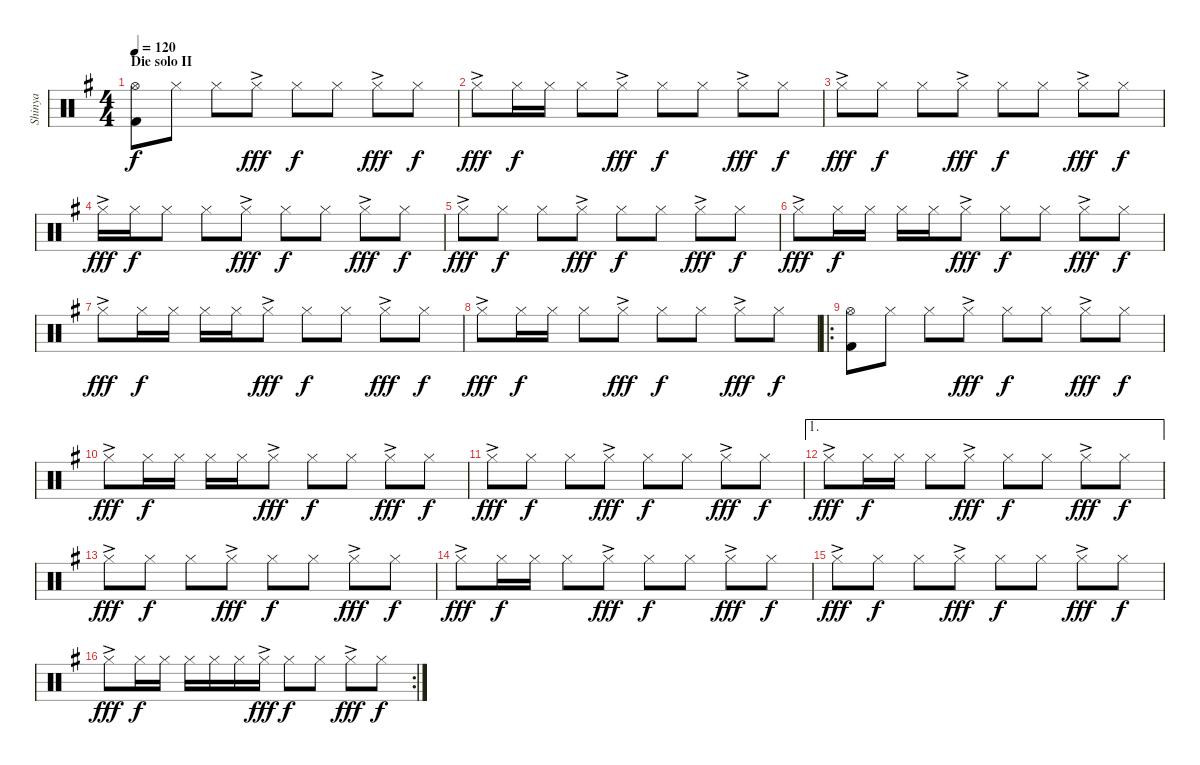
\track ("Shinya" "Shinya") {instrument percussion}
\staff {score}
\articulation defaults
\ts (4 4)
\section ("" "Die solo II")
\tempo 120
\clef neutral
\ks g
("Hi-Hat (open)" "Kick (hit) 2").8{dy f} "Hi-Hat (closed)".8 "Hi-Hat (closed)".8 "Hi-Hat (closed)"{ac}.8{dy fff} "Hi-Hat (closed)".8{dy f} "Hi-Hat (closed)".8 "Hi-Hat (closed)"{ac}.8{dy fff} "Hi-Hat (closed)".8{dy f} |
"Hi-Hat (closed)"{ac}.8{dy fff} "Hi-Hat (closed)".16{dy f} "Hi-Hat (closed)".16 "Hi-Hat (closed)".8 "Hi-Hat (closed)"{ac}.8{dy fff} "Hi-Hat (closed)".8{dy f} "Hi-Hat (closed)".8 "Hi-Hat (closed)"{ac}.8{dy fff} "Hi-Hat (closed)".8{dy f} |
"Hi-Hat (closed)"{ac}.8{dy fff} "Hi-Hat (closed)".8{dy f} "Hi-Hat (closed)".8 "Hi-Hat (closed)"{ac}.8{dy fff} "Hi-Hat (closed)".8{dy f} "Hi-Hat (closed)".8 "Hi-Hat (closed)"{ac}.8{dy fff} "Hi-Hat (closed)".8{dy f} |
"Hi-Hat (closed)"{ac}.16{dy fff} "Hi-Hat (closed)".16{dy f} "Hi-Hat (closed)".8 "Hi-Hat (closed)".8 "Hi-Hat (closed)"{ac}.8{dy fff} "Hi-Hat (closed)".8{dy f} "Hi-Hat (closed)".8 "Hi-Hat (closed)"{ac}.8{dy fff} "Hi-Hat (closed)".8{dy f} |
"Hi-Hat (closed)"{ac}.8{dy fff} "Hi-Hat (closed)".8{dy f} "Hi-Hat (closed)".8 "Hi-Hat (closed)"{ac}.8{dy fff} "Hi-Hat (closed)".8{dy f} "Hi-Hat (closed)".8 "Hi-Hat (closed)"{ac}.8{dy fff} "Hi-Hat (closed)".8{dy f} |
"Hi-Hat (closed)"{ac}.8{dy fff} "Hi-Hat (closed)".16{dy f} "Hi-Hat (closed)".16 "Hi-Hat (closed)".16 "Hi-Hat (closed)".16 "Hi-Hat (closed)"{ac}.8{dy fff} "Hi-Hat (closed)".8{dy f} "Hi-Hat (closed)".8 "Hi-Hat (closed)"{ac}.8{dy fff} "Hi-Hat (closed)".8{dy f} |
"Hi-Hat (closed)"{ac}.8{dy fff} "Hi-Hat (closed)".16{dy f} "Hi-Hat (closed)".16 "Hi-Hat (closed)".16 "Hi-Hat (closed)".16 "Hi-Hat (closed)"{ac}.8{dy fff} "Hi-Hat (closed)".8{dy f} "Hi-Hat (closed)".8 "Hi-Hat (closed)"{ac}.8{dy fff} "Hi-Hat (closed)".8{dy f} |
"Hi-Hat (closed)"{ac}.8{dy fff} "Hi-Hat (closed)".16{dy f} "Hi-Hat (closed)".16 "Hi-Hat (closed)".8 "Hi-Hat (closed)"{ac}.8{dy fff} "Hi-Hat (closed)".8{dy f} "Hi-Hat (closed)".8 "Hi-Hat (closed)"{ac}.8{dy fff} "Hi-Hat (closed)".8{dy f} |
\ro
("Hi-Hat (open)" "Kick (hit) 2").8 "Hi-Hat (closed)".8 "Hi-Hat (closed)".8 "Hi-Hat (closed)"{ac}.8{dy fff} "Hi-Hat (closed)".8{dy f} "Hi-Hat (closed)".8 "Hi-Hat (closed)"{ac}.8{dy fff} "Hi-Hat (closed)".8{dy f} |
"Hi-Hat (closed)"{ac}.8{dy fff} "Hi-Hat (closed)".16{dy f} "Hi-Hat (closed)".16 "Hi-Hat (closed)".16 "Hi-Hat (closed)".16 "Hi-Hat (closed)"{ac}.8{dy fff} "Hi-Hat (closed)".8{dy f} "Hi-Hat (closed)".8 "Hi-Hat (closed)"{ac}.8{dy fff} "Hi-Hat (closed)".8{dy f} |
"Hi-Hat (closed)"{ac}.8{dy fff} "Hi-Hat (closed)".8{dy f} "Hi-Hat (closed)".8 "Hi-Hat (closed)"{ac}.8{dy fff} "Hi-Hat (closed)".8{dy f} "Hi-Hat (closed)".8 "Hi-Hat (closed)"{ac}.8{dy fff} "Hi-Hat (closed)".8{dy f} |
\ae 1 "Hi-Hat (closed)"{ac}.8{dy fff} "Hi-Hat (closed)".16{dy f} "Hi-Hat (closed)".16 "Hi-Hat (closed)".8 "Hi-Hat (closed)"{ac}.8{dy fff} "Hi-Hat (closed)".8{dy f} "Hi-Hat (closed)".8 "Hi-Hat (closed)"{ac}.8{dy fff} "Hi-Hat (closed)".8{dy f}
|
"Hi-Hat (closed)"{ac}.8{dy fff} "Hi-Hat (closed)".8{dy f} "Hi-Hat (closed)".8 "Hi-Hat (closed)"{ac}.8{dy fff} "Hi-Hat (closed)".8{dy f} "Hi-Hat (closed)".8 "Hi-Hat (closed)"{ac}.8{dy fff} "Hi-Hat (closed)".8{dy f} |
"Hi-Hat (closed)"{ac}.8{dy fff} "Hi-Hat (closed)".16{dy f} "Hi-Hat (closed)".16 "Hi-Hat (closed)".8 "Hi-Hat (closed)"{ac}.8{dy fff} "Hi-Hat (closed)".8{dy f} "Hi-Hat (closed)".8 "Hi-Hat (closed)"{ac}.8{dy fff} "Hi-Hat (closed)".8{dy f} |
"Hi-Hat (closed)"{ac}.8{dy fff} "Hi-Hat (closed)".8{dy f} "Hi-Hat (closed)".8 "Hi-Hat (closed)"{ac}.8{dy fff} "Hi-Hat (closed)".8{dy f} "Hi-Hat (closed)".8 "Hi-Hat (closed)"{ac}.8{dy fff} "Hi-Hat (closed)".8{dy f} |
\rc 2 "Hi-Hat (closed)"{ac}.8{dy fff} "Hi-Hat (closed)".16{dy f} "Hi-Hat (closed)".16 "Hi-Hat (closed)".16 "Hi-Hat (closed)".16 "Hi-Hat (closed)".16 "Hi-Hat (closed)"{ac}.16{dy fff} "Hi-Hat (closed)".8{dy f} "Hi-Hat (closed)".8 "Hi-Hat (closed)"{ac}.8{dy fff} "Hi-Hat (closed)".8{dy f}
